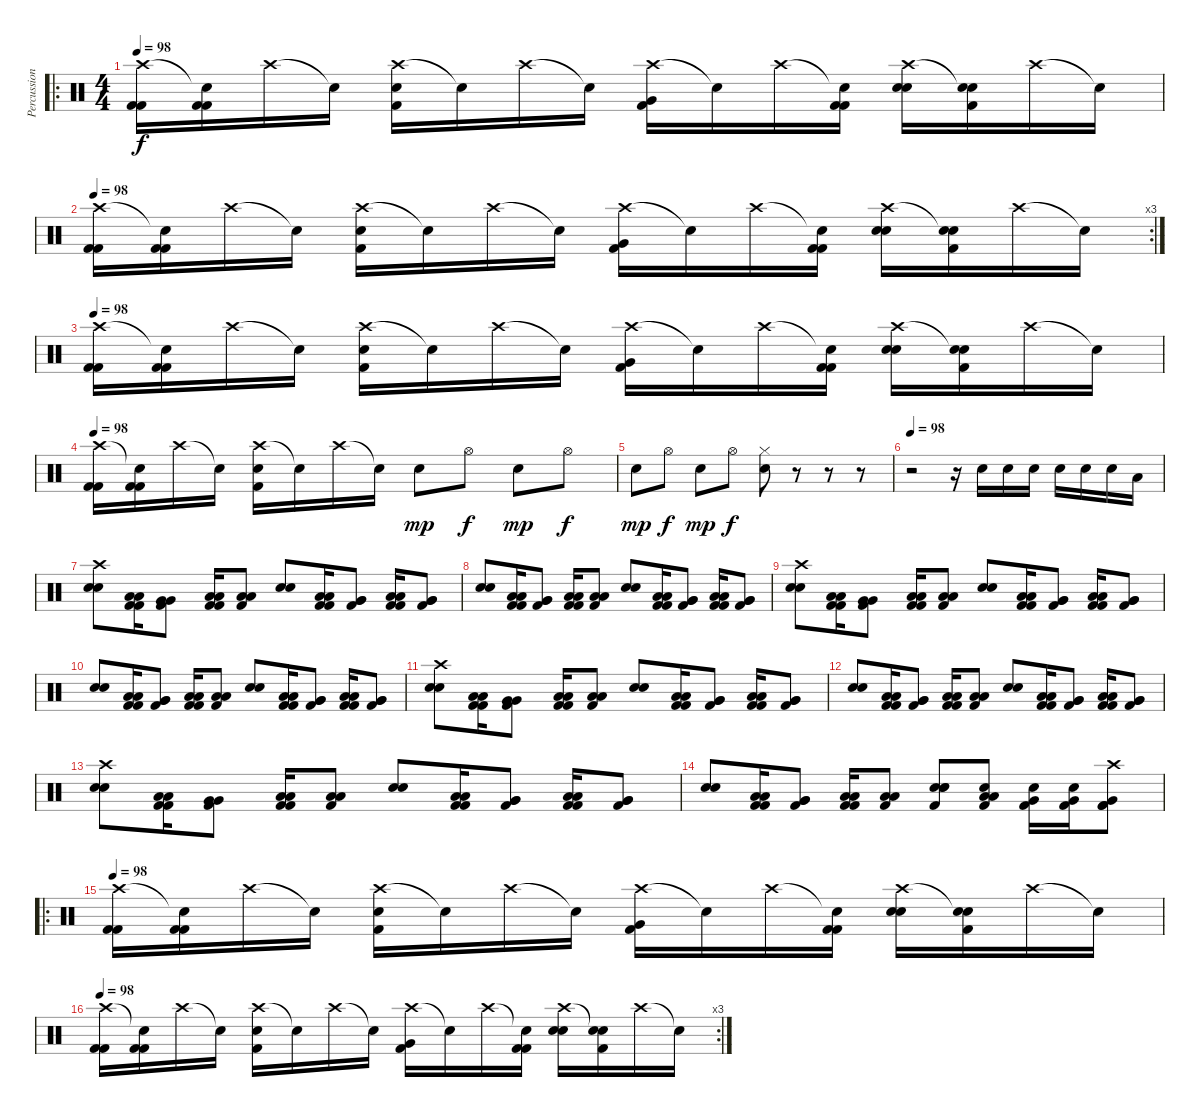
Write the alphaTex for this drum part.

\track ("Percussioni" "Percussion") {instrument percussion}
\staff {score}
\articulation defaults
\ro
\ts (4 4)
\tempo 98
\clef neutral
\ks c
("Crash high (hit)" "Kick (hit) 2" "Kick (hit) 2").16{dy f} ("Snare (hit)"{t} "Kick (hit) 2" "Kick (hit) 2").16 "Crash high (hit)".16 "Snare (hit)"{t}.16 ("Crash high (hit)" "Kick (hit) 2" "Electric Snare (hit)").16 "Snare (hit)"{t}.16 "Crash high (hit)".16 "Snare (hit)"{t}.16 ("Crash high (hit)" "Kick (hit) 2" "Very Low Tom (hit)").16 "Snare (hit)"{t}.16 "Crash high (hit)".16 ("Snare (hit)"{t} "Kick (hit) 2" "Kick (hit) 2").16 ("Crash high (hit)" "Electric Snare (hit)" "Electric Snare (hit)").16 ("Snare (hit)"{t} "Kick (hit) 2" "Electric Snare (hit)").16 "Crash high (hit)".16 "Snare (hit)"{t}.16 |
\rc 3
\tempo 98
("Crash high (hit)" "Kick (hit) 2" "Kick (hit) 2").16 ("Snare (hit)"{t} "Kick (hit) 2" "Kick (hit) 2").16 "Crash high (hit)".16 "Snare (hit)"{t}.16 ("Crash high (hit)" "Kick (hit) 2" "Electric Snare (hit)").16 "Snare (hit)"{t}.16 "Crash high (hit)".16 "Snare (hit)"{t}.16 ("Crash high (hit)" "Kick (hit) 2" "Very Low Tom (hit)").16 "Snare (hit)"{t}.16 "Crash high (hit)".16 ("Snare (hit)"{t} "Kick (hit) 2" "Kick (hit) 2").16 ("Crash high (hit)" "Electric Snare (hit)" "Electric Snare (hit)").16 ("Snare (hit)"{t} "Kick (hit) 2" "Electric Snare (hit)").16 "Crash high (hit)".16 "Snare (hit)"{t}.16 |
\tempo 98
("Crash high (hit)" "Kick (hit) 2" "Kick (hit) 2").16 ("Snare (hit)"{t} "Kick (hit) 2" "Kick (hit) 2").16 "Crash high (hit)".16 "Snare (hit)"{t}.16 ("Crash high (hit)" "Kick (hit) 2" "Electric Snare (hit)").16 "Snare (hit)"{t}.16 "Crash high (hit)".16 "Snare (hit)"{t}.16 ("Crash high (hit)" "Kick (hit) 2" "Very Low Tom (hit)").16 "Snare (hit)"{t}.16 "Crash high (hit)".16 ("Snare (hit)"{t} "Kick (hit) 2" "Kick (hit) 2").16 ("Crash high (hit)" "Electric Snare (hit)" "Electric Snare (hit)").16 ("Snare (hit)"{t} "Kick (hit) 2" "Electric Snare (hit)").16 "Crash high (hit)".16 "Snare (hit)"{t}.16 |
\tempo 98
("Crash high (hit)" "Kick (hit) 2" "Kick (hit) 2").16 ("Snare (hit)"{t} "Kick (hit) 2" "Kick (hit) 2").16 "Crash high (hit)".16 "Snare (hit)"{t}.16 ("Crash high (hit)" "Kick (hit) 2" "Electric Snare (hit)").16 "Snare (hit)"{t}.16 "Crash high (hit)".16 "Snare (hit)"{t}.16 "Electric Snare (hit)".8{dy mp} "Hi-Hat (open)".8{dy f} "Electric Snare (hit)".8{dy mp} "Hi-Hat (open)".8{dy f} |
"Electric Snare (hit)".8{dy mp} "Hi-Hat (open)".8{dy f} "Electric Snare (hit)".8{dy mp} "Hi-Hat (open)".8{dy f} ("Hi-Hat (closed)" "Electric Snare (hit)").8 r.8 r.8 r.8 |
\tempo 98
r.2 r.16 "Electric Snare (hit)".16 "Electric Snare (hit)".16 "Electric Snare (hit)".16 "Electric Snare (hit)".16 "Electric Snare (hit)".16 "Electric Snare (hit)".16 "Low Floor Tom (hit)".16 |
("Crash high (hit)" "Electric Snare (hit)" "Electric Snare (hit)").8 ("Low Floor Tom (hit)" "Low Floor Tom (hit)" "Kick (hit) 2" "Kick (hit) 2").16 ("Very Low Tom (hit)" "Very Low Tom (hit)" "Kick (hit) 2").8 ("Low Floor Tom (hit)" "Low Floor Tom (hit)" "Kick (hit) 2" "Kick (hit) 2").16 ("Low Floor Tom (hit)" "Low Floor Tom (hit)" "Kick (hit) 2").8 ("Electric Snare (hit)" "Electric Snare (hit)").8 ("Low Floor Tom (hit)" "Low Floor Tom (hit)" "Kick (hit) 2" "Kick (hit) 2").16 ("Very Low Tom (hit)" "Very Low Tom (hit)" "Kick (hit) 2").8 ("Low Floor Tom (hit)" "Low Floor Tom (hit)" "Kick (hit) 2" "Kick (hit) 2").16 ("Very Low Tom (hit)" "Very Low Tom (hit)" "Kick (hit) 2").8 |
("Electric Snare (hit)" "Electric Snare (hit)").8 ("Low Floor Tom (hit)" "Low Floor Tom (hit)" "Kick (hit) 2" "Kick (hit) 2").16 ("Very Low Tom (hit)" "Very Low Tom (hit)" "Kick (hit) 2").8 ("Low Floor Tom (hit)" "Low Floor Tom (hit)" "Kick (hit) 2" "Kick (hit) 2").16 ("Low Floor Tom (hit)" "Low Floor Tom (hit)" "Kick (hit) 2").8 ("Electric Snare (hit)" "Electric Snare (hit)").8 ("Low Floor Tom (hit)" "Low Floor Tom (hit)" "Kick (hit) 2" "Kick (hit) 2").16 ("Very Low Tom (hit)" "Very Low Tom (hit)" "Kick (hit) 2").8 ("Low Floor Tom (hit)" "Low Floor Tom (hit)" "Kick (hit) 2" "Kick (hit) 2").16 ("Very Low Tom (hit)" "Very Low Tom (hit)" "Kick (hit) 2").8 |
("Crash high (hit)" "Electric Snare (hit)" "Electric Snare (hit)").8 ("Low Floor Tom (hit)" "Low Floor Tom (hit)" "Kick (hit) 2" "Kick (hit) 2").16 ("Very Low Tom (hit)" "Very Low Tom (hit)" "Kick (hit) 2").8 ("Low Floor Tom (hit)" "Low Floor Tom (hit)" "Kick (hit) 2" "Kick (hit) 2").16 ("Low Floor Tom (hit)" "Low Floor Tom (hit)" "Kick (hit) 2").8 ("Electric Snare (hit)" "Electric Snare (hit)").8 ("Low Floor Tom (hit)" "Low Floor Tom (hit)" "Kick (hit) 2" "Kick (hit) 2").16 ("Very Low Tom (hit)" "Very Low Tom (hit)" "Kick (hit) 2").8 ("Low Floor Tom (hit)" "Low Floor Tom (hit)" "Kick (hit) 2" "Kick (hit) 2").16 ("Very Low Tom (hit)" "Very Low Tom (hit)" "Kick (hit) 2").8 |
("Electric Snare (hit)" "Electric Snare (hit)").8 ("Low Floor Tom (hit)" "Low Floor Tom (hit)" "Kick (hit) 2" "Kick (hit) 2").16 ("Very Low Tom (hit)" "Very Low Tom (hit)" "Kick (hit) 2").8 ("Low Floor Tom (hit)" "Low Floor Tom (hit)" "Kick (hit) 2" "Kick (hit) 2").16 ("Low Floor Tom (hit)" "Low Floor Tom (hit)" "Kick (hit) 2").8 ("Electric Snare (hit)" "Electric Snare (hit)").8 ("Low Floor Tom (hit)" "Low Floor Tom (hit)" "Kick (hit) 2" "Kick (hit) 2").16 ("Very Low Tom (hit)" "Very Low Tom (hit)" "Kick (hit) 2").8 ("Low Floor Tom (hit)" "Low Floor Tom (hit)" "Kick (hit) 2" "Kick (hit) 2").16 ("Very Low Tom (hit)" "Very Low Tom (hit)" "Kick (hit) 2").8 |
("Crash high (hit)" "Electric Snare (hit)" "Electric Snare (hit)").8 ("Low Floor Tom (hit)" "Low Floor Tom (hit)" "Kick (hit) 2" "Kick (hit) 2").16 ("Very Low Tom (hit)" "Very Low Tom (hit)" "Kick (hit) 2").8 ("Low Floor Tom (hit)" "Low Floor Tom (hit)" "Kick (hit) 2" "Kick (hit) 2").16 ("Low Floor Tom (hit)" "Low Floor Tom (hit)" "Kick (hit) 2").8 ("Electric Snare (hit)" "Electric Snare (hit)").8 ("Low Floor Tom (hit)" "Low Floor Tom (hit)" "Kick (hit) 2" "Kick (hit) 2").16 ("Very Low Tom (hit)" "Very Low Tom (hit)" "Kick (hit) 2").8 ("Low Floor Tom (hit)" "Low Floor Tom (hit)" "Kick (hit) 2" "Kick (hit) 2").16 ("Very Low Tom (hit)" "Very Low Tom (hit)" "Kick (hit) 2").8 |
("Electric Snare (hit)" "Electric Snare (hit)").8 ("Low Floor Tom (hit)" "Low Floor Tom (hit)" "Kick (hit) 2" "Kick (hit) 2").16 ("Very Low Tom (hit)" "Very Low Tom (hit)" "Kick (hit) 2").8 ("Low Floor Tom (hit)" "Low Floor Tom (hit)" "Kick (hit) 2" "Kick (hit) 2").16 ("Low Floor Tom (hit)" "Low Floor Tom (hit)" "Kick (hit) 2").8 ("Electric Snare (hit)" "Electric Snare (hit)").8 ("Low Floor Tom (hit)" "Low Floor Tom (hit)" "Kick (hit) 2" "Kick (hit) 2").16 ("Very Low Tom (hit)" "Very Low Tom (hit)" "Kick (hit) 2").8 ("Low Floor Tom (hit)" "Low Floor Tom (hit)" "Kick (hit) 2" "Kick (hit) 2").16 ("Very Low Tom (hit)" "Very Low Tom (hit)" "Kick (hit) 2").8 |
("Crash high (hit)" "Electric Snare (hit)" "Electric Snare (hit)").8 ("Low Floor Tom (hit)" "Low Floor Tom (hit)" "Kick (hit) 2" "Kick (hit) 2").16 ("Very Low Tom (hit)" "Very Low Tom (hit)" "Kick (hit) 2").8 ("Low Floor Tom (hit)" "Low Floor Tom (hit)" "Kick (hit) 2" "Kick (hit) 2").16 ("Low Floor Tom (hit)" "Low Floor Tom (hit)" "Kick (hit) 2").8 ("Electric Snare (hit)" "Electric Snare (hit)").8 ("Low Floor Tom (hit)" "Low Floor Tom (hit)" "Kick (hit) 2" "Kick (hit) 2").16 ("Very Low Tom (hit)" "Very Low Tom (hit)" "Kick (hit) 2").8 ("Low Floor Tom (hit)" "Low Floor Tom (hit)" "Kick (hit) 2" "Kick (hit) 2").16 ("Very Low Tom (hit)" "Very Low Tom (hit)" "Kick (hit) 2").8 |
("Electric Snare (hit)" "Electric Snare (hit)").8 ("Low Floor Tom (hit)" "Low Floor Tom (hit)" "Kick (hit) 2" "Kick (hit) 2").16 ("Very Low Tom (hit)" "Very Low Tom (hit)" "Kick (hit) 2").8 ("Low Floor Tom (hit)" "Low Floor Tom (hit)" "Kick (hit) 2" "Kick (hit) 2").16 ("Low Floor Tom (hit)" "Low Floor Tom (hit)" "Kick (hit) 2").8 ("Electric Snare (hit)" "Electric Snare (hit)" "Electric Snare (hit)" "Kick (hit) 2").8 ("Low Floor Tom (hit)" "Low Floor Tom (hit)" "Electric Snare (hit)" "Kick (hit) 2").8 ("Electric Snare (hit)" "Very Low Tom (hit)" "Kick (hit) 2").16 ("Electric Snare (hit)" "Very Low Tom (hit)" "Kick (hit) 2").16 ("Crash high (hit)" "Kick (hit) 2" "Very Low Tom (hit)" "Kick (hit) 2").8 |
\ro
\tempo 98
("Crash high (hit)" "Kick (hit) 2" "Kick (hit) 2").16 ("Snare (hit)"{t} "Kick (hit) 2" "Kick (hit) 2").16 "Crash high (hit)".16 "Snare (hit)"{t}.16 ("Crash high (hit)" "Kick (hit) 2" "Electric Snare (hit)").16 "Snare (hit)"{t}.16 "Crash high (hit)".16 "Snare (hit)"{t}.16 ("Crash high (hit)" "Kick (hit) 2" "Very Low Tom (hit)").16 "Snare (hit)"{t}.16 "Crash high (hit)".16 ("Snare (hit)"{t} "Kick (hit) 2" "Kick (hit) 2").16 ("Crash high (hit)" "Electric Snare (hit)" "Electric Snare (hit)").16 ("Snare (hit)"{t} "Kick (hit) 2" "Electric Snare (hit)").16 "Crash high (hit)".16 "Snare (hit)"{t}.16 |
\rc 3
\tempo 98
("Crash high (hit)" "Kick (hit) 2" "Kick (hit) 2").16 ("Snare (hit)"{t} "Kick (hit) 2" "Kick (hit) 2").16 "Crash high (hit)".16 "Snare (hit)"{t}.16 ("Crash high (hit)" "Kick (hit) 2" "Electric Snare (hit)").16 "Snare (hit)"{t}.16 "Crash high (hit)".16 "Snare (hit)"{t}.16 ("Crash high (hit)" "Kick (hit) 2" "Very Low Tom (hit)").16 "Snare (hit)"{t}.16 "Crash high (hit)".16 ("Snare (hit)"{t} "Kick (hit) 2" "Kick (hit) 2").16 ("Crash high (hit)" "Electric Snare (hit)" "Electric Snare (hit)").16 ("Snare (hit)"{t} "Kick (hit) 2" "Electric Snare (hit)").16 "Crash high (hit)".16 "Snare (hit)"{t}.16
